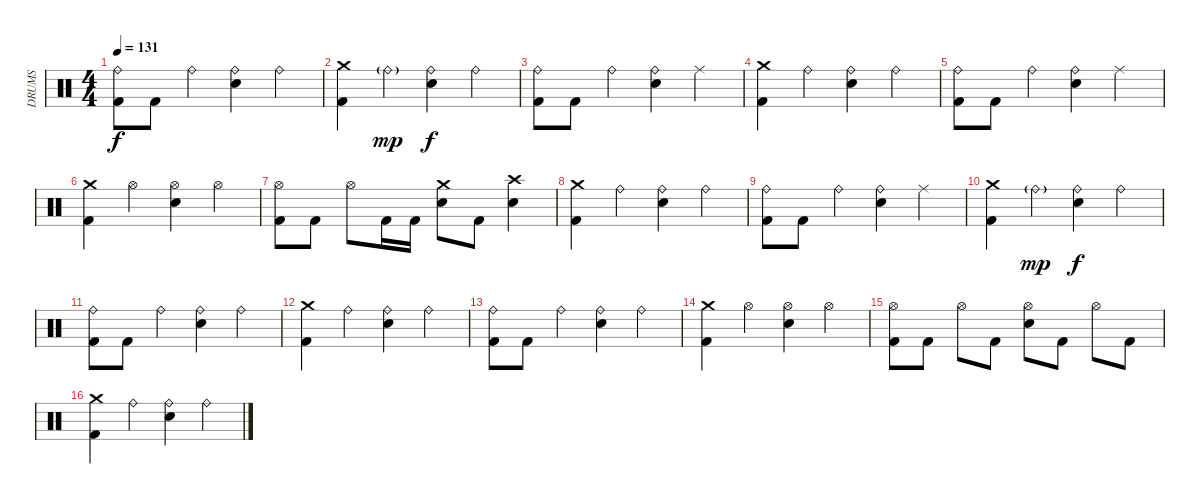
\track ("DRUMS" "DRUMS") {instrument percussion}
\staff {score}
\articulation defaults
\ts (4 4)
\tempo 131
\clef neutral
\ks c
("Ride (bell)" "Kick (hit) 2").8{dy f} "Kick (hit) 2".8 "Ride (bell)".4 ("Ride (bell)" "Snare (hit) 2").4 "Ride (bell)".4 |
("Crash medium (hit)" "Kick (hit) 2").4 "Ride (bell)"{g}.4{dy mp} ("Ride (bell)" "Snare (hit) 2").4{dy f} "Ride (bell)".4 |
("Ride (bell)" "Kick (hit) 2").8 "Kick (hit) 2".8 "Ride (bell)".4 ("Ride (bell)" "Snare (hit) 2").4 "Ride (middle)".4 |
("Crash medium (hit)" "Kick (hit) 2").4 "Ride (bell)".4 ("Ride (bell)" "Snare (hit) 2").4 "Ride (bell)".4 |
("Ride (bell)" "Kick (hit) 2").8 "Kick (hit) 2".8 "Ride (bell)".4 ("Ride (bell)" "Snare (hit) 2").4 "Ride (middle)".4 |
("Crash medium (hit)" "Kick (hit) 2").4 "Hi-Hat (open)".4 ("Hi-Hat (open)" "Snare (hit) 2").4 "Hi-Hat (open)".4 |
("Hi-Hat (open)" "Kick (hit) 2").8 "Kick (hit) 2".8 "Hi-Hat (open)".8 "Kick (hit) 2".16 "Kick (hit) 2".16 ("Crash medium (hit)" "Snare (hit) 2").8 "Kick (hit) 2".8 ("Crash high (hit)" "Snare (hit) 2").4 |
("Crash medium (hit)" "Kick (hit) 2").4 "Ride (bell)".4 ("Ride (bell)" "Snare (hit) 2").4 "Ride (bell)".4 |
("Ride (bell)" "Kick (hit) 2").8 "Kick (hit) 2".8 "Ride (bell)".4 ("Ride (bell)" "Snare (hit) 2").4 "Ride (middle)".4 |
("Crash medium (hit)" "Kick (hit) 2").4 "Ride (bell)"{g}.4{dy mp} ("Ride (bell)" "Snare (hit) 2").4{dy f} "Ride (bell)".4 |
("Ride (bell)" "Kick (hit) 2").8 "Kick (hit) 2".8 "Ride (bell)".4 ("Ride (bell)" "Snare (hit) 2").4 "Ride (bell)".4 |
("Crash medium (hit)" "Kick (hit) 2").4 "Ride (bell)".4 ("Ride (bell)" "Snare (hit) 2").4 "Ride (bell)".4 |
("Ride (bell)" "Kick (hit) 2").8 "Kick (hit) 2".8 "Ride (bell)".4 ("Ride (bell)" "Snare (hit) 2").4 "Ride (bell)".4 |
("Crash medium (hit)" "Kick (hit) 2").4 "Hi-Hat (open)".4 ("Hi-Hat (open)" "Snare (hit) 2").4 "Hi-Hat (open)".4 |
("Hi-Hat (open)" "Kick (hit) 2").8 "Kick (hit) 2".8 "Hi-Hat (open)".8 "Kick (hit) 2".8 ("Hi-Hat (open)" "Snare (hit) 2").8 "Kick (hit) 2".8 "Hi-Hat (open)".8 "Kick (hit) 2".8 |
("Crash medium (hit)" "Kick (hit) 2").4 "Ride (bell)".4 ("Ride (bell)" "Snare (hit) 2").4 "Ride (bell)".4
